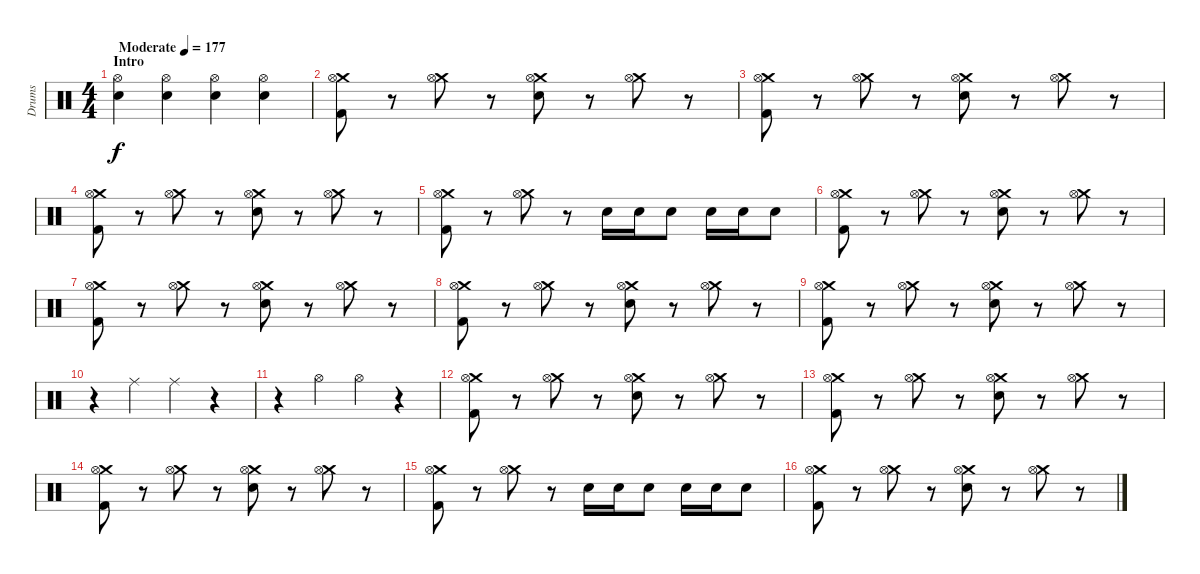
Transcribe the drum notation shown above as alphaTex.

\track ("Drums" "Drums") {instrument percussion}
\staff {score}
\articulation defaults
\ts (4 4)
\section ("" "Intro")
\tempo (177 "Moderate")
\clef neutral
\ks c
("Hi-Hat (open)" "Electric Snare (hit)").4{dy f} ("Hi-Hat (open)" "Electric Snare (hit)").4 ("Hi-Hat (open)" "Electric Snare (hit)").4 ("Hi-Hat (open)" "Electric Snare (hit)").4 |
("Crash medium (hit)" "Hi-Hat (open)" "Kick (hit) 2").8 r.8 ("Crash medium (hit)" "Hi-Hat (open)").8 r.8 ("Crash medium (hit)" "Hi-Hat (open)" "Electric Snare (hit)").8 r.8 ("Crash medium (hit)" "Hi-Hat (open)").8 r.8 |
("Crash medium (hit)" "Hi-Hat (open)" "Kick (hit) 2").8 r.8 ("Crash medium (hit)" "Hi-Hat (open)").8 r.8 ("Crash medium (hit)" "Hi-Hat (open)" "Electric Snare (hit)").8 r.8 ("Crash medium (hit)" "Hi-Hat (open)").8 r.8 |
("Crash medium (hit)" "Hi-Hat (open)" "Kick (hit) 2").8 r.8 ("Crash medium (hit)" "Hi-Hat (open)").8 r.8 ("Crash medium (hit)" "Hi-Hat (open)" "Electric Snare (hit)").8 r.8 ("Crash medium (hit)" "Hi-Hat (open)").8 r.8 |
("Crash medium (hit)" "Hi-Hat (open)" "Kick (hit) 2").8 r.8 ("Crash medium (hit)" "Hi-Hat (open)").8 r.8 "Electric Snare (hit)".16 "Electric Snare (hit)".16 "Electric Snare (hit)".8 "Electric Snare (hit)".16 "Electric Snare (hit)".16 "Electric Snare (hit)".8 |
("Crash medium (hit)" "Hi-Hat (open)" "Kick (hit) 2").8 r.8 ("Crash medium (hit)" "Hi-Hat (open)").8 r.8 ("Crash medium (hit)" "Hi-Hat (open)" "Electric Snare (hit)").8 r.8 ("Crash medium (hit)" "Hi-Hat (open)").8 r.8 |
("Crash medium (hit)" "Hi-Hat (open)" "Kick (hit) 2").8 r.8 ("Crash medium (hit)" "Hi-Hat (open)").8 r.8 ("Crash medium (hit)" "Hi-Hat (open)" "Electric Snare (hit)").8 r.8 ("Crash medium (hit)" "Hi-Hat (open)").8 r.8 |
("Crash medium (hit)" "Hi-Hat (open)" "Kick (hit) 2").8 r.8 ("Crash medium (hit)" "Hi-Hat (open)").8 r.8 ("Crash medium (hit)" "Hi-Hat (open)" "Electric Snare (hit)").8 r.8 ("Crash medium (hit)" "Hi-Hat (open)").8 r.8 |
("Crash medium (hit)" "Hi-Hat (open)" "Kick (hit) 2").8 r.8 ("Crash medium (hit)" "Hi-Hat (open)").8 r.8 ("Crash medium (hit)" "Hi-Hat (open)" "Electric Snare (hit)").8 r.8 ("Crash medium (hit)" "Hi-Hat (open)").8 r.8 |
r.4 "Ride (middle)".4 "Ride (middle)".4 r.4 |
r.4 "Hi-Hat (open)".4 "Hi-Hat (open)".4 r.4 |
("Crash medium (hit)" "Hi-Hat (open)" "Kick (hit) 2").8 r.8 ("Crash medium (hit)" "Hi-Hat (open)").8 r.8 ("Crash medium (hit)" "Hi-Hat (open)" "Electric Snare (hit)").8 r.8 ("Crash medium (hit)" "Hi-Hat (open)").8 r.8 |
("Crash medium (hit)" "Hi-Hat (open)" "Kick (hit) 2").8 r.8 ("Crash medium (hit)" "Hi-Hat (open)").8 r.8 ("Crash medium (hit)" "Hi-Hat (open)" "Electric Snare (hit)").8 r.8 ("Crash medium (hit)" "Hi-Hat (open)").8 r.8 |
("Crash medium (hit)" "Hi-Hat (open)" "Kick (hit) 2").8 r.8 ("Crash medium (hit)" "Hi-Hat (open)").8 r.8 ("Crash medium (hit)" "Hi-Hat (open)" "Electric Snare (hit)").8 r.8 ("Crash medium (hit)" "Hi-Hat (open)").8 r.8 |
("Crash medium (hit)" "Hi-Hat (open)" "Kick (hit) 2").8 r.8 ("Crash medium (hit)" "Hi-Hat (open)").8 r.8 "Electric Snare (hit)".16 "Electric Snare (hit)".16 "Electric Snare (hit)".8 "Electric Snare (hit)".16 "Electric Snare (hit)".16 "Electric Snare (hit)".8 |
("Crash medium (hit)" "Hi-Hat (open)" "Kick (hit) 2").8 r.8 ("Crash medium (hit)" "Hi-Hat (open)").8 r.8 ("Crash medium (hit)" "Hi-Hat (open)" "Electric Snare (hit)").8 r.8 ("Crash medium (hit)" "Hi-Hat (open)").8 r.8
